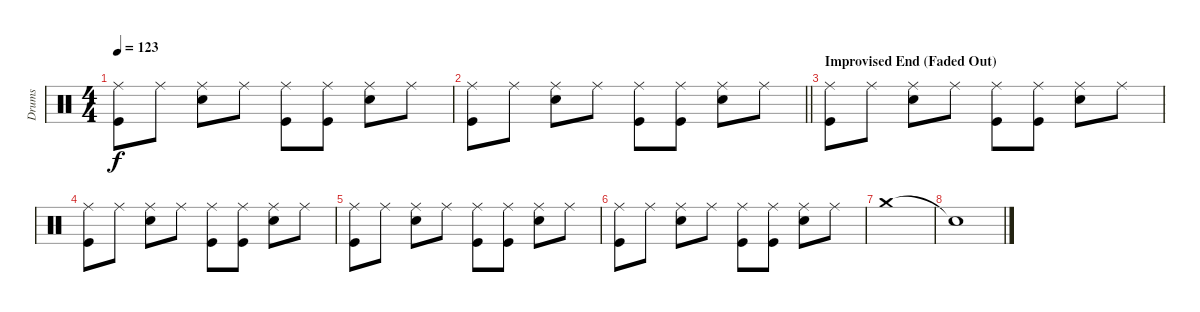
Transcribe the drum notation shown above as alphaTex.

\track ("Drums" "Drums") {instrument percussion}
\staff {score}
\articulation defaults
\ts (4 4)
\tempo 123
\clef neutral
\ks c
("Ride (middle)" "Kick (hit)").8{dy f} "Ride (middle)".8 ("Ride (middle)" "Electric Snare (hit)").8 "Ride (middle)".8 ("Ride (middle)" "Kick (hit)").8 ("Ride (middle)" "Kick (hit)").8 ("Ride (middle)" "Electric Snare (hit)").8 "Ride (middle)".8 |
\barLineRight lightlight
("Ride (middle)" "Kick (hit)").8 "Ride (middle)".8 ("Ride (middle)" "Electric Snare (hit)").8 "Ride (middle)".8 ("Ride (middle)" "Kick (hit)").8 ("Ride (middle)" "Kick (hit)").8 ("Ride (middle)" "Electric Snare (hit)").8 "Ride (middle)".8 |
\section ("" "Improvised End (Faded Out)")
("Ride (middle)" "Kick (hit)").8 "Ride (middle)".8 ("Ride (middle)" "Electric Snare (hit)").8 "Ride (middle)".8 ("Ride (middle)" "Kick (hit)").8 ("Ride (middle)" "Kick (hit)").8 ("Ride (middle)" "Electric Snare (hit)").8 "Ride (middle)".8 |
("Ride (middle)" "Kick (hit)").8 "Ride (middle)".8 ("Ride (middle)" "Electric Snare (hit)").8 "Ride (middle)".8 ("Ride (middle)" "Kick (hit)").8 ("Ride (middle)" "Kick (hit)").8 ("Ride (middle)" "Electric Snare (hit)").8 "Ride (middle)".8 |
("Ride (middle)" "Kick (hit)").8 "Ride (middle)".8 ("Ride (middle)" "Electric Snare (hit)").8 "Ride (middle)".8 ("Ride (middle)" "Kick (hit)").8 ("Ride (middle)" "Kick (hit)").8 ("Ride (middle)" "Electric Snare (hit)").8 "Ride (middle)".8 |
("Ride (middle)" "Kick (hit)").8 "Ride (middle)".8 ("Ride (middle)" "Electric Snare (hit)").8 "Ride (middle)".8 ("Ride (middle)" "Kick (hit)").8 ("Ride (middle)" "Kick (hit)").8 ("Ride (middle)" "Electric Snare (hit)").8 "Ride (middle)".8 |
"Crash medium (hit)".1 |
"Snare (hit)"{t}.1
